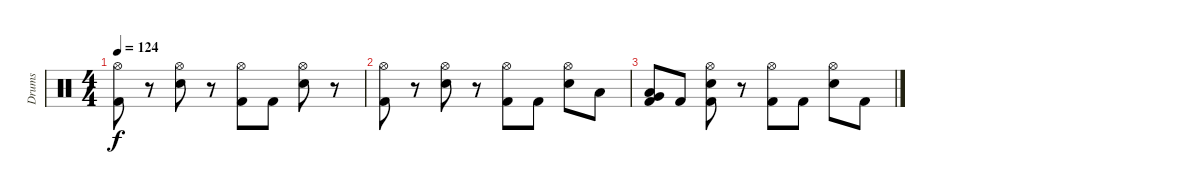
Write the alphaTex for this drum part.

\track ("Drums" "Drums") {instrument percussion}
\staff {score}
\articulation defaults
\ts (4 4)
\tempo 124
\clef neutral
\ks c
("Hi-Hat (open)" "Kick (hit) 2").8{dy f} r.8 ("Hi-Hat (open)" "Electric Snare (hit)").8 r.8 ("Hi-Hat (open)" "Kick (hit) 2").8 "Kick (hit) 2".8 ("Hi-Hat (open)" "Electric Snare (hit)").8 r.8 |
("Hi-Hat (open)" "Kick (hit) 2").8 r.8 ("Hi-Hat (open)" "Electric Snare (hit)").8 r.8 ("Hi-Hat (open)" "Kick (hit) 2").8 "Kick (hit) 2".8 ("Hi-Hat (open)" "Electric Snare (hit)").8 "Low Tom (hit)".8 |
("Very Low Tom (hit)" "Low Tom (hit)" "Kick (hit) 2").8 "Kick (hit) 2".8 ("Hi-Hat (open)" "Electric Snare (hit)" "Kick (hit) 2").8 r.8 ("Hi-Hat (open)" "Kick (hit) 2").8 "Kick (hit) 2".8 ("Hi-Hat (open)" "Electric Snare (hit)").8 "Kick (hit) 2".8
